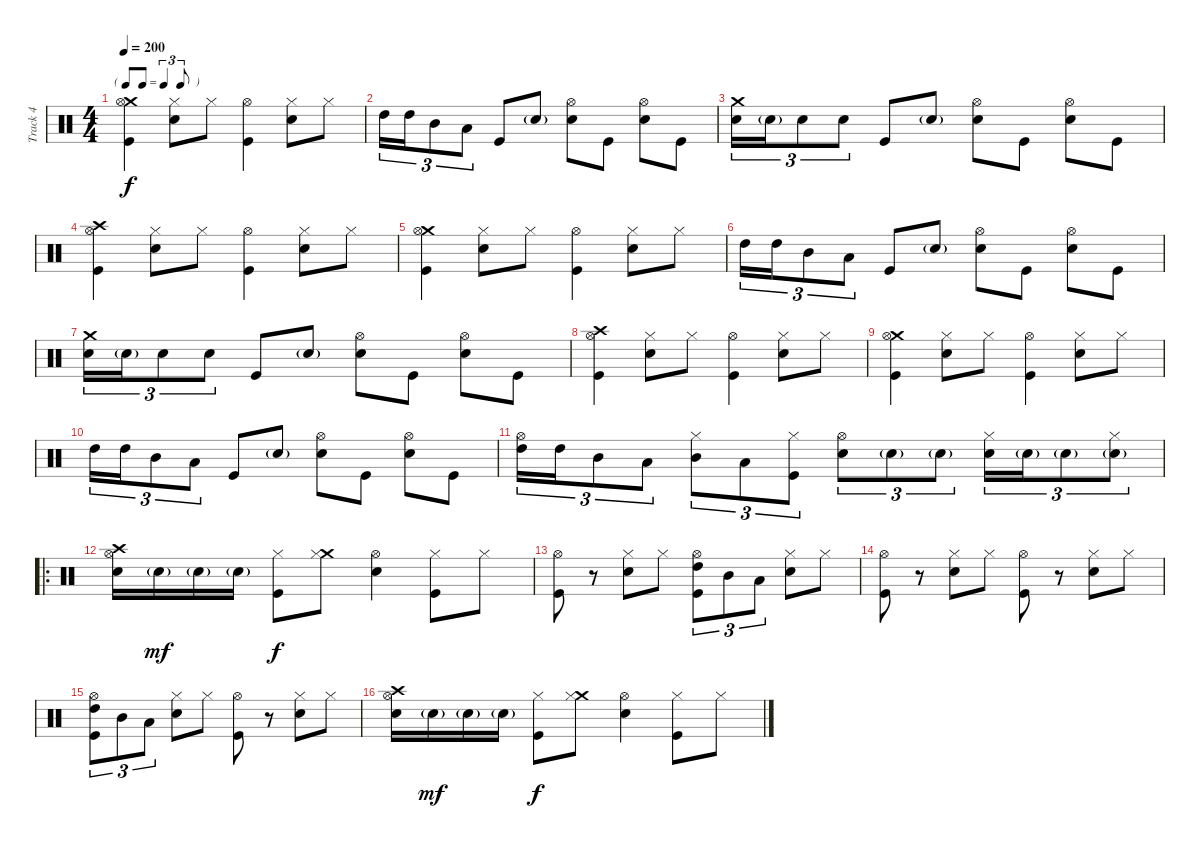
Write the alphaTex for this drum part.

\track ("Track 4" "Track 4") {instrument percussion}
\staff {score}
\articulation defaults
\ts (4 4)
\tf triplet8th
\tempo 200
\clef neutral
\ks c
("Crash medium (hit)" "Hi-Hat (open)" "Kick (hit)").4{dy f} ("Hi-Hat (closed)" "Electric Snare (hit)").8 "Hi-Hat (closed)".8 ("Hi-Hat (open)" "Kick (hit)").4 ("Hi-Hat (closed)" "Electric Snare (hit)").8 "Hi-Hat (closed)".8 |
"High Tom (hit)".16{tu (3 2)} "High Tom (hit)".16{tu (3 2)} "Mid Tom (hit)".8{tu (3 2)} "Low Tom (hit)".8{tu (3 2)} "Kick (hit)".8 "Electric Snare (hit)"{g}.8 ("Hi-Hat (open)" "Electric Snare (hit)").8 "Kick (hit)".8 ("Hi-Hat (open)" "Electric Snare (hit)").8 "Kick (hit)".8 |
("Crash medium (hit)" "Electric Snare (hit)").16{tu (3 2)} "Electric Snare (hit)"{g}.16{tu (3 2)} "Electric Snare (hit)".8{tu (3 2)} "Electric Snare (hit)".8{tu (3 2)} "Kick (hit)".8 "Electric Snare (hit)"{g}.8 ("Hi-Hat (open)" "Electric Snare (hit)").8 "Kick (hit)".8 ("Hi-Hat (open)" "Electric Snare (hit)").8 "Kick (hit)".8 |
("Crash high (hit)" "Hi-Hat (open)" "Kick (hit)").4 ("Hi-Hat (closed)" "Electric Snare (hit)").8 "Hi-Hat (closed)".8 ("Hi-Hat (open)" "Kick (hit)").4 ("Hi-Hat (closed)" "Electric Snare (hit)").8 "Hi-Hat (closed)".8 |
("Crash medium (hit)" "Hi-Hat (open)" "Kick (hit)").4 ("Hi-Hat (closed)" "Electric Snare (hit)").8 "Hi-Hat (closed)".8 ("Hi-Hat (open)" "Kick (hit)").4 ("Hi-Hat (closed)" "Electric Snare (hit)").8 "Hi-Hat (closed)".8 |
"High Tom (hit)".16{tu (3 2)} "High Tom (hit)".16{tu (3 2)} "Mid Tom (hit)".8{tu (3 2)} "Low Tom (hit)".8{tu (3 2)} "Kick (hit)".8 "Electric Snare (hit)"{g}.8 ("Hi-Hat (open)" "Electric Snare (hit)").8 "Kick (hit)".8 ("Hi-Hat (open)" "Electric Snare (hit)").8 "Kick (hit)".8 |
("Crash medium (hit)" "Electric Snare (hit)").16{tu (3 2)} "Electric Snare (hit)"{g}.16{tu (3 2)} "Electric Snare (hit)".8{tu (3 2)} "Electric Snare (hit)".8{tu (3 2)} "Kick (hit)".8 "Electric Snare (hit)"{g}.8 ("Hi-Hat (open)" "Electric Snare (hit)").8 "Kick (hit)".8 ("Hi-Hat (open)" "Electric Snare (hit)").8 "Kick (hit)".8 |
("Crash high (hit)" "Hi-Hat (open)" "Kick (hit)").4 ("Hi-Hat (closed)" "Electric Snare (hit)").8 "Hi-Hat (closed)".8 ("Hi-Hat (open)" "Kick (hit)").4 ("Hi-Hat (closed)" "Electric Snare (hit)").8 "Hi-Hat (closed)".8 |
("Crash medium (hit)" "Hi-Hat (open)" "Kick (hit)").4 ("Hi-Hat (closed)" "Electric Snare (hit)").8 "Hi-Hat (closed)".8 ("Hi-Hat (open)" "Kick (hit)").4 ("Hi-Hat (closed)" "Electric Snare (hit)").8 "Hi-Hat (closed)".8 |
"High Tom (hit)".16{tu (3 2)} "High Tom (hit)".16{tu (3 2)} "Mid Tom (hit)".8{tu (3 2)} "Low Tom (hit)".8{tu (3 2)} "Kick (hit)".8 "Electric Snare (hit)"{g}.8 ("Hi-Hat (open)" "Electric Snare (hit)").8 "Kick (hit)".8 ("Hi-Hat (open)" "Electric Snare (hit)").8 "Kick (hit)".8 |
("High Tom (hit)" "Hi-Hat (open)").16{tu (3 2)} "High Tom (hit)".16{tu (3 2)} "Mid Tom (hit)".8{tu (3 2)} "Low Tom (hit)".8{tu (3 2)} ("Mid Tom (hit)" "Hi-Hat (closed)").8{tu (3 2)} "Low Tom (hit)".8{tu (3 2)} ("Hi-Hat (closed)" "Kick (hit)").8{tu (3 2)} ("Hi-Hat (open)" "Electric Snare (hit)").8{tu (3 2)} "Electric Snare (hit)"{g}.8{tu (3 2)} "Electric Snare (hit)"{g}.8{tu (3 2)} ("Hi-Hat (closed)" "Electric Snare (hit)").16{tu (3 2)} "Electric Snare (hit)"{g}.16{tu (3 2)} "Electric Snare (hit)"{g}.8{tu (3 2)} ("Hi-Hat (closed)" "Electric Snare (hit)"{g}).8{tu (3 2)} |
\ro
("Crash high (hit)" "Hi-Hat (open)" "Electric Snare (hit)").16 "Electric Snare (hit)"{g}.16{dy mf} "Electric Snare (hit)"{g}.16 "Electric Snare (hit)"{g}.16 ("Hi-Hat (closed)" "Kick (hit)").8{dy f} ("Crash medium (hit)" "Hi-Hat (closed)").8 ("Hi-Hat (open)" "Electric Snare (hit)").4 ("Hi-Hat (closed)" "Kick (hit)").8 "Hi-Hat (closed)".8 |
("Hi-Hat (open)" "Kick (hit)").8 r.8 ("Hi-Hat (closed)" "Electric Snare (hit)").8 "Hi-Hat (closed)".8 ("High Tom (hit)" "Hi-Hat (open)" "Kick (hit)").8{tu (3 2)} "Mid Tom (hit)".8{tu (3 2)} "Low Tom (hit)".8{tu (3 2)} ("Hi-Hat (closed)" "Electric Snare (hit)").8 "Hi-Hat (closed)".8 |
("Hi-Hat (open)" "Kick (hit)").8 r.8 ("Hi-Hat (closed)" "Electric Snare (hit)").8 "Hi-Hat (closed)".8 ("Hi-Hat (open)" "Kick (hit)").8 r.8 ("Hi-Hat (closed)" "Electric Snare (hit)").8 "Hi-Hat (closed)".8 |
("High Tom (hit)" "Hi-Hat (open)" "Kick (hit)").8{tu (3 2)} "Mid Tom (hit)".8{tu (3 2)} "Low Tom (hit)".8{tu (3 2)} ("Hi-Hat (closed)" "Electric Snare (hit)").8 "Hi-Hat (closed)".8 ("Hi-Hat (open)" "Kick (hit)").8 r.8 ("Hi-Hat (closed)" "Electric Snare (hit)").8 "Hi-Hat (closed)".8 |
("Crash high (hit)" "Hi-Hat (open)" "Electric Snare (hit)").16 "Electric Snare (hit)"{g}.16{dy mf} "Electric Snare (hit)"{g}.16 "Electric Snare (hit)"{g}.16 ("Hi-Hat (closed)" "Kick (hit)").8{dy f} ("Crash medium (hit)" "Hi-Hat (closed)").8 ("Hi-Hat (open)" "Electric Snare (hit)").4 ("Hi-Hat (closed)" "Kick (hit)").8 "Hi-Hat (closed)".8
